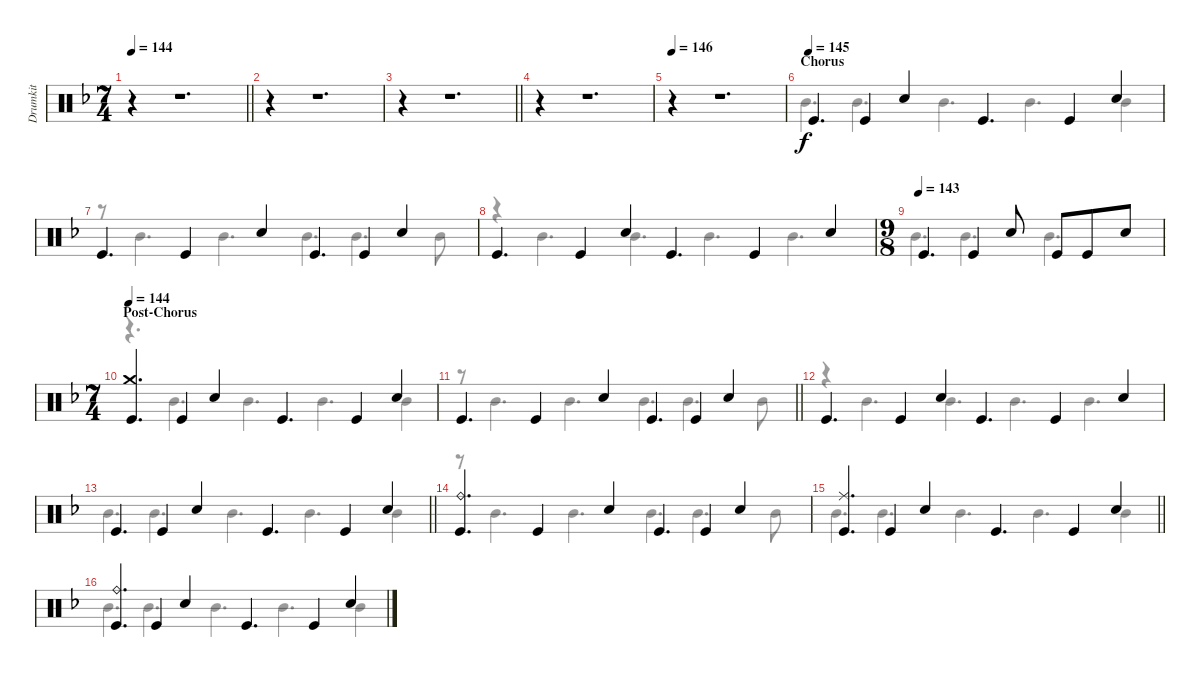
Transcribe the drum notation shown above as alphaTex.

\track ("Drumkit" "Drumkit") {instrument percussion}
\staff {score}
\articulation defaults
\voice
\ts (7 4)
\tempo 144
\clef neutral
\barLineRight lightlight
\ks dminor
r.4{dy f} r.1{d} |
r.4 r.1{d} |
\barLineRight lightlight
r.4 r.1{d} |
r.4 r.1{d} |
\tempo 146
r.4 r.1{d} |
\section ("" "Chorus")
\tempo (145)
"Kick (hit)".4{d} "Kick (hit)".4 "Snare (hit) 2".4 "Kick (hit)".4{d} "Kick (hit)".4 "Snare (hit) 2".4 |
"Kick (hit)".4{d} "Kick (hit)".4 "Snare (hit) 2".4 "Kick (hit)".4{d} "Kick (hit)".4 "Snare (hit) 2".4 |
"Kick (hit)".4{d} "Kick (hit)".4 "Snare (hit) 2".4 "Kick (hit)".4{d} "Kick (hit)".4 "Snare (hit) 2".4 |
\ts (9 8)
\tempo (143)
"Kick (hit)".4{d} "Kick (hit)".4 "Snare (hit) 2".8 "Kick (hit)".8 "Kick (hit)".8 "Snare (hit) 2".8 |
\ts (7 4)
\section ("" "Post-Chorus")
\tempo 144
("Crash medium (hit)" "Kick (hit)").4{d} "Kick (hit)".4 "Snare (hit) 2".4 "Kick (hit)".4{d} "Kick (hit)".4 "Snare (hit) 2".4 |
\barLineRight lightlight "Kick (hit)".4{d} "Kick (hit)".4 "Snare (hit) 2".4 "Kick (hit)".4{d} "Kick (hit)".4 "Snare (hit) 2".4
|
"Kick (hit)".4{d} "Kick (hit)".4 "Snare (hit) 2".4 "Kick (hit)".4{d} "Kick (hit)".4 "Snare (hit) 2".4 |
\barLineRight lightlight "Kick (hit)".4{d} "Kick (hit)".4 "Snare (hit) 2".4 "Kick (hit)".4{d} "Kick (hit)".4 "Snare (hit) 2".4
|
("Kick (hit)" "Ride (bell)").4{d} "Kick (hit)".4 "Snare (hit) 2".4 "Kick (hit)".4{d} "Kick (hit)".4 "Snare (hit) 2".4 |
\barLineRight lightlight
("Kick (hit)" "Ride (middle)").4{d} "Kick (hit)".4 "Snare (hit) 2".4 "Kick (hit)".4{d} "Kick (hit)".4 "Snare (hit) 2".4 |
("Kick (hit)" "Ride (bell)").4{d} "Kick (hit)".4 "Snare (hit) 2".4 "Kick (hit)".4{d} "Kick (hit)".4 "Snare (hit) 2".4
\voice
\clef neutral
\ottava regular
\simile none
\barLineRight lightlight
\ks dminor
|
|
\barLineRight lightlight
|
|
|
"Mid Tom (hit)".4{d} "Mid Tom (hit)".4{d} "Mid Tom (hit)".4{d} "Mid Tom (hit)".4{d} "Mid Tom (hit)".4 |
r.8 "Mid Tom (hit)".4{d} "Mid Tom (hit)".4{d} "Mid Tom (hit)".4{d} "Mid Tom (hit)".4{d} "Mid Tom (hit)".8 |
r.4 "Mid Tom (hit)".4{d} "Mid Tom (hit)".4{d} "Mid Tom (hit)".4{d} "Mid Tom (hit)".4{d} |
"Mid Tom (hit)".4{d} "Mid Tom (hit)".4{d} "Mid Tom (hit)".4{d} |
r.4{d} "Mid Tom (hit)".4{d} "Mid Tom (hit)".4{d} "Mid Tom (hit)".4{d} "Mid Tom (hit)".4 |
\barLineRight lightlight
r.8 "Mid Tom (hit)".4{d} "Mid Tom (hit)".4{d} "Mid Tom (hit)".4{d} "Mid Tom (hit)".4{d} "Mid Tom (hit)".8 |
r.4 "Mid Tom (hit)".4{d} "Mid Tom (hit)".4{d} "Mid Tom (hit)".4{d} "Mid Tom (hit)".4{d} |
\barLineRight lightlight "Mid Tom (hit)".4{d} "Mid Tom (hit)".4{d} "Mid Tom (hit)".4{d} "Mid Tom (hit)".4{d} "Mid Tom (hit)".4
|
r.8 "Mid Tom (hit)".4{d} "Mid Tom (hit)".4{d} "Mid Tom (hit)".4{d} "Mid Tom (hit)".4{d} "Mid Tom (hit)".8 |
\barLineRight lightlight "Mid Tom (hit)".4{d} "Mid Tom (hit)".4{d} "Mid Tom (hit)".4{d} "Mid Tom (hit)".4{d} "Mid Tom (hit)".4
|
"Mid Tom (hit)".4{d} "Mid Tom (hit)".4{d} "Mid Tom (hit)".4{d} "Mid Tom (hit)".4{d} "Mid Tom (hit)".4
